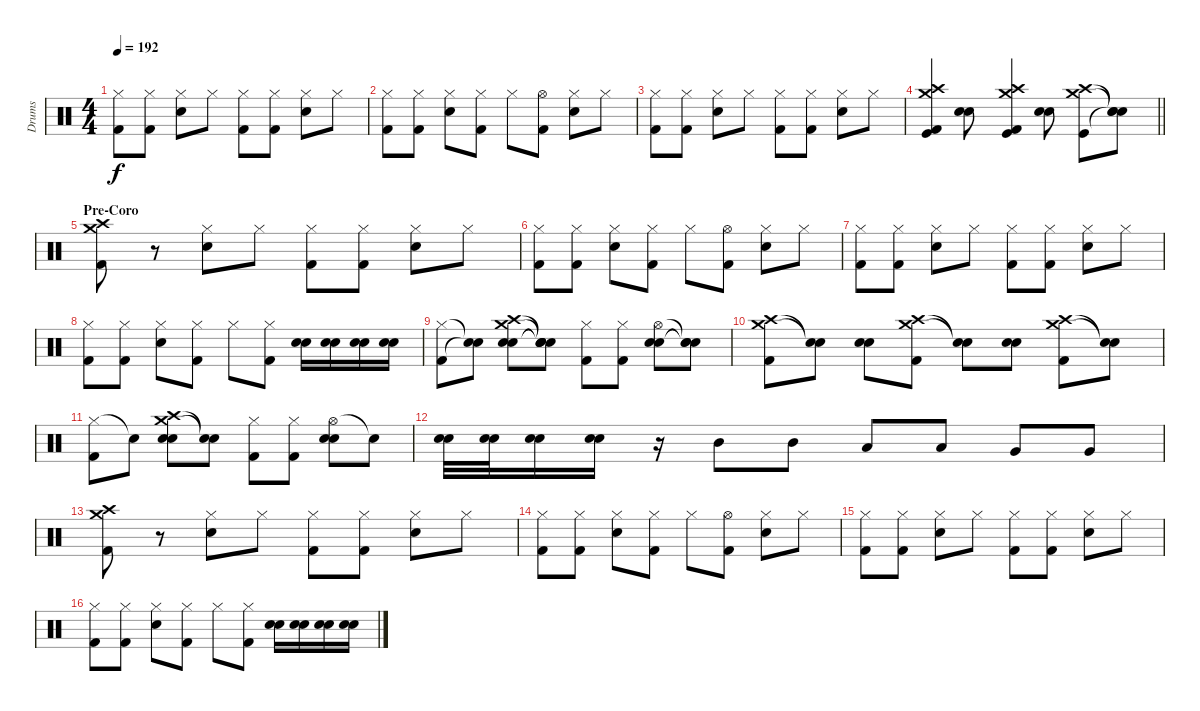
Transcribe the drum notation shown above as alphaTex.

\track ("Drums" "Drums") {instrument percussion}
\staff {score}
\articulation defaults
\ts (4 4)
\tempo 192
\clef neutral
\ks c
("Hi-Hat (closed)" "Kick (hit) 2").8{dy f} ("Hi-Hat (closed)" "Kick (hit) 2").8 ("Hi-Hat (closed)" "Snare (hit) 2").8 "Hi-Hat (closed)".8 ("Hi-Hat (closed)" "Kick (hit) 2").8 ("Hi-Hat (closed)" "Kick (hit) 2").8 ("Hi-Hat (closed)" "Snare (hit) 2").8 "Hi-Hat (closed)".8 |
("Hi-Hat (closed)" "Kick (hit) 2").8 ("Hi-Hat (closed)" "Kick (hit) 2").8 ("Hi-Hat (closed)" "Snare (hit) 2").8 ("Hi-Hat (closed)" "Kick (hit) 2").8 "Hi-Hat (closed)".8 ("Hi-Hat (open)" "Kick (hit) 2").8 ("Hi-Hat (closed)" "Snare (hit) 2").8 "Hi-Hat (closed)".8 |
("Hi-Hat (closed)" "Kick (hit) 2").8 ("Hi-Hat (closed)" "Kick (hit) 2").8 ("Hi-Hat (closed)" "Snare (hit) 2").8 "Hi-Hat (closed)".8 ("Hi-Hat (closed)" "Kick (hit) 2").8 ("Hi-Hat (closed)" "Kick (hit) 2").8 ("Hi-Hat (closed)" "Snare (hit) 2").8 "Hi-Hat (closed)".8 |
\barLineRight lightlight
("Crash medium (hit)" "Crash high (hit)" "Kick (hit) 2" "Kick (hit)").4 ("Electric Snare (hit)" "Snare (hit) 2").8 ("Crash medium (hit)" "Crash high (hit)" "Kick (hit) 2" "Kick (hit)").4 ("Electric Snare (hit)" "Snare (hit) 2").8 ("Crash medium (hit)" "Crash high (hit)" "Kick (hit)").8 ("Snare (hit)"{t} "Snare (hit)"{t} "Snare (hit)"{t}).8 |
\section ("" "Pre-Coro")
("Crash medium (hit)" "Crash high (hit)" "Kick (hit) 2").8 r.8 ("Hi-Hat (closed)" "Snare (hit) 2").8 "Hi-Hat (closed)".8 ("Hi-Hat (closed)" "Kick (hit) 2").8 ("Hi-Hat (closed)" "Kick (hit) 2").8 ("Hi-Hat (closed)" "Snare (hit) 2").8 "Hi-Hat (closed)".8 |
("Hi-Hat (closed)" "Kick (hit) 2").8 ("Hi-Hat (closed)" "Kick (hit) 2").8 ("Hi-Hat (closed)" "Snare (hit) 2").8 ("Hi-Hat (closed)" "Kick (hit) 2").8 "Hi-Hat (closed)".8 ("Hi-Hat (open)" "Kick (hit) 2").8 ("Hi-Hat (closed)" "Snare (hit) 2").8 "Hi-Hat (closed)".8 |
("Hi-Hat (closed)" "Kick (hit) 2").8 ("Hi-Hat (closed)" "Kick (hit) 2").8 ("Hi-Hat (closed)" "Snare (hit) 2").8 "Hi-Hat (closed)".8 ("Hi-Hat (closed)" "Kick (hit) 2").8 ("Hi-Hat (closed)" "Kick (hit) 2").8 ("Hi-Hat (closed)" "Snare (hit) 2").8 "Hi-Hat (closed)".8 |
("Hi-Hat (closed)" "Kick (hit) 2").8 ("Hi-Hat (closed)" "Kick (hit) 2").8 ("Hi-Hat (closed)" "Snare (hit) 2").8 ("Hi-Hat (closed)" "Kick (hit) 2").8 "Hi-Hat (closed)".8 ("Hi-Hat (closed)" "Kick (hit) 2").8 ("Snare (hit) 2" "Electric Snare (hit)").16 ("Snare (hit) 2" "Electric Snare (hit)").16 ("Snare (hit) 2" "Electric Snare (hit)").16 ("Snare (hit) 2" "Electric Snare (hit)").16 |
("Hi-Hat (closed)" "Kick (hit) 2").8 ("Snare (hit)"{t} "Snare (hit)"{t}).8 ("Crash medium (hit)" "Crash high (hit)" "Snare (hit) 2" "Electric Snare (hit)").8 ("Snare (hit)"{t} "Snare (hit)"{t} "Snare (hit)"{t} "Snare (hit)"{t}).8 ("Hi-Hat (closed)" "Kick (hit) 2").8 ("Hi-Hat (closed)" "Kick (hit) 2").8 ("Hi-Hat (open)" "Snare (hit) 2" "Electric Snare (hit)").8 ("Snare (hit)"{t} "Snare (hit)"{t} "Snare (hit)"{t}).8 |
("Crash medium (hit)" "Crash high (hit)" "Kick (hit) 2").8 ("Snare (hit)"{t} "Snare (hit)"{t}).8 ("Snare (hit) 2" "Electric Snare (hit)").8 ("Crash medium (hit)" "Crash high (hit)" "Kick (hit) 2").8 ("Snare (hit)"{t} "Snare (hit)"{t}).8 ("Snare (hit) 2" "Electric Snare (hit)").8 ("Crash medium (hit)" "Crash high (hit)" "Kick (hit) 2").8 ("Snare (hit)"{t} "Snare (hit)"{t}).8 |
("Hi-Hat (closed)" "Kick (hit) 2").8 "Snare (hit)"{t}.8 ("Crash medium (hit)" "Crash high (hit)" "Snare (hit) 2" "Electric Snare (hit)").8 ("Snare (hit)"{t} "Snare (hit)"{t}).8 ("Hi-Hat (closed)" "Kick (hit) 2").8 ("Hi-Hat (closed)" "Kick (hit) 2").8 ("Hi-Hat (open)" "Snare (hit) 2" "Electric Snare (hit)").8 "Snare (hit)"{t}.8 |
("Snare (hit) 2" "Electric Snare (hit)").32 ("Snare (hit) 2" "Electric Snare (hit)").32 ("Snare (hit) 2" "Electric Snare (hit)").16 ("Snare (hit) 2" "Electric Snare (hit)").16 r.16 "Mid Tom (hit)".8 "Mid Tom (hit)".8 "Low Tom (hit)".8 "Low Tom (hit)".8 "Very Low Tom (hit)".8 "Very Low Tom (hit)".8 |
("Crash medium (hit)" "Crash high (hit)" "Kick (hit) 2").8 r.8 ("Hi-Hat (closed)" "Snare (hit) 2").8 "Hi-Hat (closed)".8 ("Hi-Hat (closed)" "Kick (hit) 2").8 ("Hi-Hat (closed)" "Kick (hit) 2").8 ("Hi-Hat (closed)" "Snare (hit) 2").8 "Hi-Hat (closed)".8 |
("Hi-Hat (closed)" "Kick (hit) 2").8 ("Hi-Hat (closed)" "Kick (hit) 2").8 ("Hi-Hat (closed)" "Snare (hit) 2").8 ("Hi-Hat (closed)" "Kick (hit) 2").8 "Hi-Hat (closed)".8 ("Hi-Hat (open)" "Kick (hit) 2").8 ("Hi-Hat (closed)" "Snare (hit) 2").8 "Hi-Hat (closed)".8 |
("Hi-Hat (closed)" "Kick (hit) 2").8 ("Hi-Hat (closed)" "Kick (hit) 2").8 ("Hi-Hat (closed)" "Snare (hit) 2").8 "Hi-Hat (closed)".8 ("Hi-Hat (closed)" "Kick (hit) 2").8 ("Hi-Hat (closed)" "Kick (hit) 2").8 ("Hi-Hat (closed)" "Snare (hit) 2").8 "Hi-Hat (closed)".8 |
("Hi-Hat (closed)" "Kick (hit) 2").8 ("Hi-Hat (closed)" "Kick (hit) 2").8 ("Hi-Hat (closed)" "Snare (hit) 2").8 ("Hi-Hat (closed)" "Kick (hit) 2").8 "Hi-Hat (closed)".8 ("Hi-Hat (closed)" "Kick (hit) 2").8 ("Snare (hit) 2" "Electric Snare (hit)").16 ("Snare (hit) 2" "Electric Snare (hit)").16 ("Snare (hit) 2" "Electric Snare (hit)").16 ("Snare (hit) 2" "Electric Snare (hit)").16
